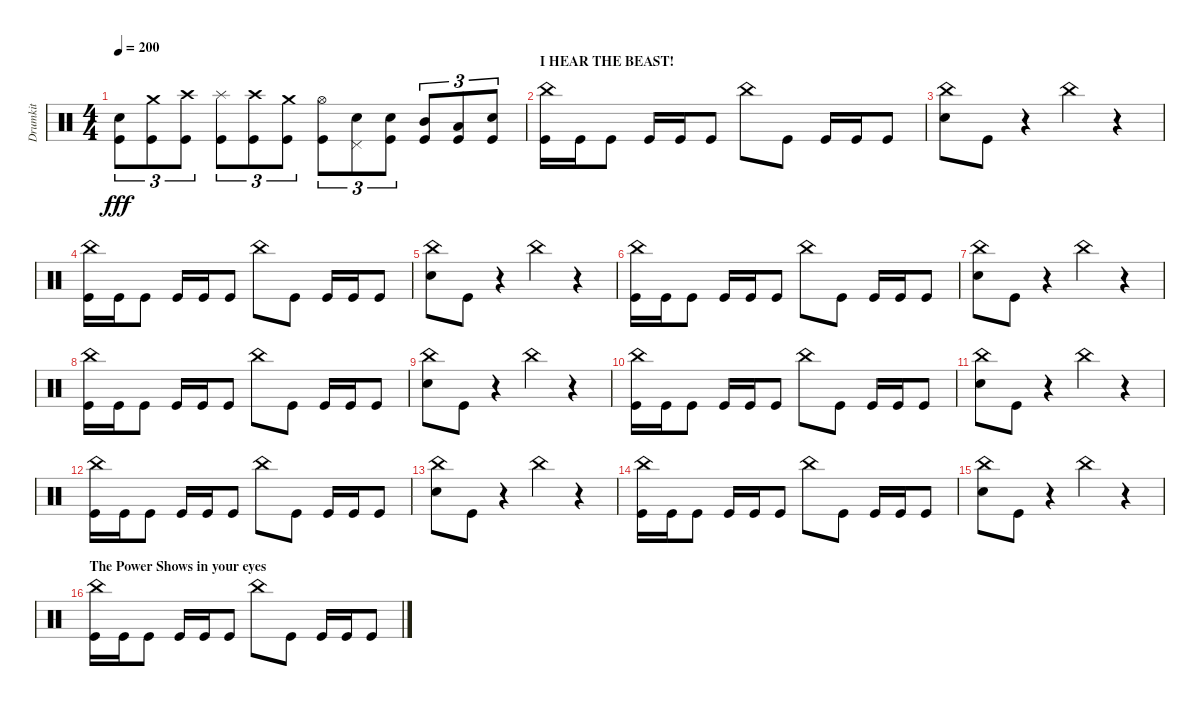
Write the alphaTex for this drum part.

\track ("Drumkit" "Drumkit") {instrument percussion}
\staff {score}
\articulation defaults
\ts (4 4)
\tempo 200
\clef neutral
\ks c
("Kick (hit)" "Snare (hit) 2").8{tu (3 2) dy fff} ("Kick (hit)" "Crash medium (hit)").8{tu (3 2)} ("Kick (hit)" "Crash high (hit)").8{tu (3 2)} ("Kick (hit)" "Splash (hit)").8{tu (3 2)} ("Kick (hit)" "Crash high (hit)").8{tu (3 2)} ("Kick (hit)" "Crash medium (hit)").8{tu (3 2)} ("Hi-Hat (open)" "Kick (hit)").8{tu (3 2)} ("Pedal Hi-Hat (hit)" "Snare (hit) 2").8{tu (3 2)} ("Snare (hit) 2" "Kick (hit)").8{tu (3 2)} ("Mid Tom (hit)" "Kick (hit)").8{tu (3 2)} ("Low Tom (hit)" "Kick (hit)").8{tu (3 2)} ("Kick (hit)" "Snare (hit) 2").8{tu (3 2)} |
\section ("" "I HEAR THE BEAST!")
("China (hit)" "Kick (hit)").16 "Kick (hit)".16 "Kick (hit)".8 "Kick (hit)".16 "Kick (hit)".16 "Kick (hit)".8 "China (hit)".8 "Kick (hit)".8 "Kick (hit)".16 "Kick (hit)".16 "Kick (hit)".8 |
("China (hit)" "Snare (hit) 2").8 "Kick (hit)".8 r.4 "China (hit)".4 r.4 |
("China (hit)" "Kick (hit)").16 "Kick (hit)".16 "Kick (hit)".8 "Kick (hit)".16 "Kick (hit)".16 "Kick (hit)".8 "China (hit)".8 "Kick (hit)".8 "Kick (hit)".16 "Kick (hit)".16 "Kick (hit)".8 |
("China (hit)" "Snare (hit) 2").8 "Kick (hit)".8 r.4 "China (hit)".4 r.4 |
("China (hit)" "Kick (hit)").16 "Kick (hit)".16 "Kick (hit)".8 "Kick (hit)".16 "Kick (hit)".16 "Kick (hit)".8 "China (hit)".8 "Kick (hit)".8 "Kick (hit)".16 "Kick (hit)".16 "Kick (hit)".8 |
("China (hit)" "Snare (hit) 2").8 "Kick (hit)".8 r.4 "China (hit)".4 r.4 |
("China (hit)" "Kick (hit)").16 "Kick (hit)".16 "Kick (hit)".8 "Kick (hit)".16 "Kick (hit)".16 "Kick (hit)".8 "China (hit)".8 "Kick (hit)".8 "Kick (hit)".16 "Kick (hit)".16 "Kick (hit)".8 |
("China (hit)" "Snare (hit) 2").8 "Kick (hit)".8 r.4 "China (hit)".4 r.4 |
("China (hit)" "Kick (hit)").16 "Kick (hit)".16 "Kick (hit)".8 "Kick (hit)".16 "Kick (hit)".16 "Kick (hit)".8 "China (hit)".8 "Kick (hit)".8 "Kick (hit)".16 "Kick (hit)".16 "Kick (hit)".8 |
("China (hit)" "Snare (hit) 2").8 "Kick (hit)".8 r.4 "China (hit)".4 r.4 |
("China (hit)" "Kick (hit)").16 "Kick (hit)".16 "Kick (hit)".8 "Kick (hit)".16 "Kick (hit)".16 "Kick (hit)".8 "China (hit)".8 "Kick (hit)".8 "Kick (hit)".16 "Kick (hit)".16 "Kick (hit)".8 |
("China (hit)" "Snare (hit) 2").8 "Kick (hit)".8 r.4 "China (hit)".4 r.4 |
("China (hit)" "Kick (hit)").16 "Kick (hit)".16 "Kick (hit)".8 "Kick (hit)".16 "Kick (hit)".16 "Kick (hit)".8 "China (hit)".8 "Kick (hit)".8 "Kick (hit)".16 "Kick (hit)".16 "Kick (hit)".8 |
("China (hit)" "Snare (hit) 2").8 "Kick (hit)".8 r.4 "China (hit)".4 r.4 |
\section ("" "The Power Shows in your eyes")
("China (hit)" "Kick (hit)").16 "Kick (hit)".16 "Kick (hit)".8 "Kick (hit)".16 "Kick (hit)".16 "Kick (hit)".8 "China (hit)".8 "Kick (hit)".8 "Kick (hit)".16 "Kick (hit)".16 "Kick (hit)".8
